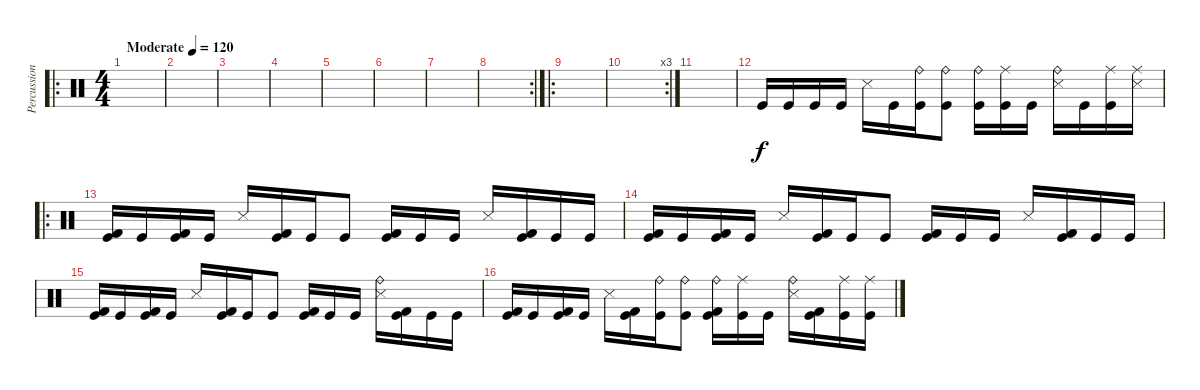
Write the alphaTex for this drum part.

\track ("Percussion" "Percussion") {instrument percussion}
\staff {score}
\articulation defaults
\ro
\ts (4 4)
\tempo (120 "Moderate")
\tempo 90
\tempo (120 "Moderate")
\clef neutral
\ks c
|
|
|
|
|
|
|
\rc 2
|
\ro
|
\rc 3
|
|
"Kick (hit)".16 "Kick (hit)".16 "Kick (hit)".16 "Kick (hit)".16 "Snare (side stick) 3".16 "Kick (hit)".16 ("Ride (bell)" "Kick (hit)").16 ("Ride (bell)" "Kick (hit)").8 ("Ride (bell)" "Kick (hit)").16 ("Ride (middle)" "Kick (hit)").16 "Kick (hit)".16 ("Ride (bell)" "Snare (side stick) 3").16 "Kick (hit)".16 ("Ride (middle)" "Kick (hit)").16 ("Ride (middle)" "Snare (side stick) 3").16 |
\ro
("Kick (hit)" "Kick (hit) 2").16 "Kick (hit)".16 ("Kick (hit)" "Kick (hit) 2").16 "Kick (hit)".16 "Snare (side stick) 3".16 ("Kick (hit)" "Kick (hit) 2").16 "Kick (hit)".16 "Kick (hit)".8 ("Kick (hit)" "Kick (hit) 2").16 "Kick (hit)".16 "Kick (hit)".16 "Snare (side stick) 3".16 ("Kick (hit)" "Kick (hit) 2").16 "Kick (hit)".16 "Kick (hit)".16 |
("Kick (hit)" "Kick (hit) 2").16 "Kick (hit)".16 ("Kick (hit)" "Kick (hit) 2").16 "Kick (hit)".16 "Snare (side stick) 3".16 ("Kick (hit)" "Kick (hit) 2").16 "Kick (hit)".16 "Kick (hit)".8 ("Kick (hit)" "Kick (hit) 2").16 "Kick (hit)".16 "Kick (hit)".16 "Snare (side stick) 3".16 ("Kick (hit)" "Kick (hit) 2").16 "Kick (hit)".16 "Kick (hit)".16 |
("Kick (hit)" "Kick (hit) 2").16 "Kick (hit)".16 ("Kick (hit)" "Kick (hit) 2").16 "Kick (hit)".16 "Snare (side stick) 3".16 ("Kick (hit)" "Kick (hit) 2").16 "Kick (hit)".16 "Kick (hit)".8 ("Kick (hit)" "Kick (hit) 2").16 "Kick (hit)".16 "Kick (hit)".16 ("Ride (bell)" "Snare (side stick) 3").16 ("Kick (hit)" "Kick (hit) 2").16 "Kick (hit)".16 "Kick (hit)".16 |
("Kick (hit)" "Kick (hit) 2").16 "Kick (hit)".16 ("Kick (hit)" "Kick (hit) 2").16 "Kick (hit)".16 "Snare (side stick) 3".16 ("Kick (hit)" "Kick (hit) 2").16 ("Ride (bell)" "Kick (hit)").16 ("Ride (bell)" "Kick (hit)").8 ("Ride (bell)" "Kick (hit)" "Kick (hit) 2").16 ("Ride (middle)" "Kick (hit)").16 "Kick (hit)".16 ("Ride (bell)" "Snare (side stick) 3").16 ("Kick (hit)" "Kick (hit) 2").16 ("Ride (middle)" "Kick (hit)").16 ("Ride (middle)" "Kick (hit)").16
